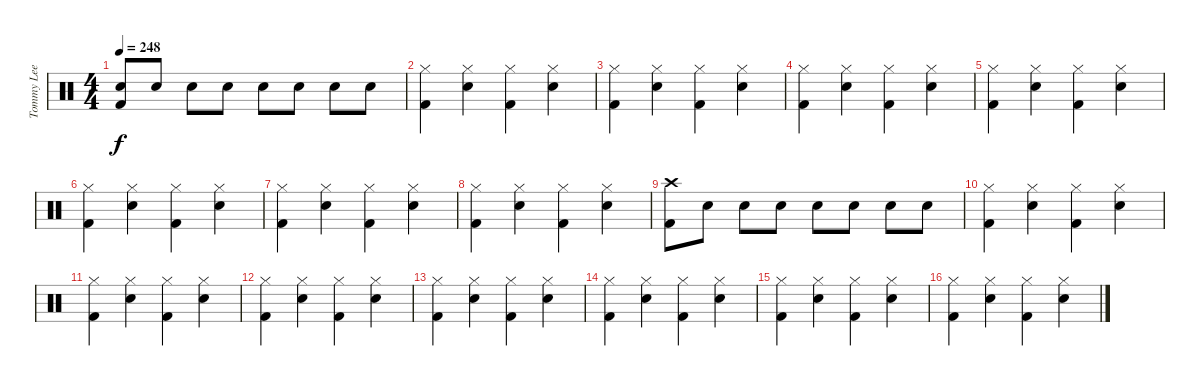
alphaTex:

\track ("Tommy Lee" "Tommy Lee") {instrument percussion}
\staff {score}
\articulation defaults
\ts (4 4)
\tempo 248
\clef neutral
\ks c
("Electric Snare (hit)" "Kick (hit) 2").8{dy f} "Electric Snare (hit)".8 "Electric Snare (hit)".8 "Electric Snare (hit)".8 "Electric Snare (hit)".8 "Electric Snare (hit)".8 "Electric Snare (hit)".8 "Electric Snare (hit)".8 |
("Hi-Hat (closed)" "Kick (hit) 2").4 ("Hi-Hat (closed)" "Electric Snare (hit)").4 ("Hi-Hat (closed)" "Kick (hit) 2").4 ("Hi-Hat (closed)" "Electric Snare (hit)").4 |
("Hi-Hat (closed)" "Kick (hit) 2").4 ("Hi-Hat (closed)" "Electric Snare (hit)").4 ("Hi-Hat (closed)" "Kick (hit) 2").4 ("Hi-Hat (closed)" "Electric Snare (hit)").4 |
("Hi-Hat (closed)" "Kick (hit) 2").4 ("Hi-Hat (closed)" "Electric Snare (hit)").4 ("Hi-Hat (closed)" "Kick (hit) 2").4 ("Hi-Hat (closed)" "Electric Snare (hit)").4 |
("Hi-Hat (closed)" "Kick (hit) 2").4 ("Hi-Hat (closed)" "Electric Snare (hit)").4 ("Hi-Hat (closed)" "Kick (hit) 2").4 ("Hi-Hat (closed)" "Electric Snare (hit)").4 |
("Hi-Hat (closed)" "Kick (hit) 2").4 ("Hi-Hat (closed)" "Electric Snare (hit)").4 ("Hi-Hat (closed)" "Kick (hit) 2").4 ("Hi-Hat (closed)" "Electric Snare (hit)").4 |
("Hi-Hat (closed)" "Kick (hit) 2").4 ("Hi-Hat (closed)" "Electric Snare (hit)").4 ("Hi-Hat (closed)" "Kick (hit) 2").4 ("Hi-Hat (closed)" "Electric Snare (hit)").4 |
("Hi-Hat (closed)" "Kick (hit) 2").4 ("Hi-Hat (closed)" "Electric Snare (hit)").4 ("Hi-Hat (closed)" "Kick (hit) 2").4 ("Hi-Hat (closed)" "Electric Snare (hit)").4 |
("Crash high (hit)" "Kick (hit) 2").8 "Electric Snare (hit)".8 "Electric Snare (hit)".8 "Electric Snare (hit)".8 "Electric Snare (hit)".8 "Electric Snare (hit)".8 "Electric Snare (hit)".8 "Electric Snare (hit)".8 |
("Hi-Hat (closed)" "Kick (hit) 2").4 ("Hi-Hat (closed)" "Electric Snare (hit)").4 ("Hi-Hat (closed)" "Kick (hit) 2").4 ("Hi-Hat (closed)" "Electric Snare (hit)").4 |
("Hi-Hat (closed)" "Kick (hit) 2").4 ("Hi-Hat (closed)" "Electric Snare (hit)").4 ("Hi-Hat (closed)" "Kick (hit) 2").4 ("Hi-Hat (closed)" "Electric Snare (hit)").4 |
("Hi-Hat (closed)" "Kick (hit) 2").4 ("Hi-Hat (closed)" "Electric Snare (hit)").4 ("Hi-Hat (closed)" "Kick (hit) 2").4 ("Hi-Hat (closed)" "Electric Snare (hit)").4 |
("Hi-Hat (closed)" "Kick (hit) 2").4 ("Hi-Hat (closed)" "Electric Snare (hit)").4 ("Hi-Hat (closed)" "Kick (hit) 2").4 ("Hi-Hat (closed)" "Electric Snare (hit)").4 |
("Hi-Hat (closed)" "Kick (hit) 2").4 ("Hi-Hat (closed)" "Electric Snare (hit)").4 ("Hi-Hat (closed)" "Kick (hit) 2").4 ("Hi-Hat (closed)" "Electric Snare (hit)").4 |
("Hi-Hat (closed)" "Kick (hit) 2").4 ("Hi-Hat (closed)" "Electric Snare (hit)").4 ("Hi-Hat (closed)" "Kick (hit) 2").4 ("Hi-Hat (closed)" "Electric Snare (hit)").4 |
("Hi-Hat (closed)" "Kick (hit) 2").4 ("Hi-Hat (closed)" "Electric Snare (hit)").4 ("Hi-Hat (closed)" "Kick (hit) 2").4 ("Hi-Hat (closed)" "Electric Snare (hit)").4
